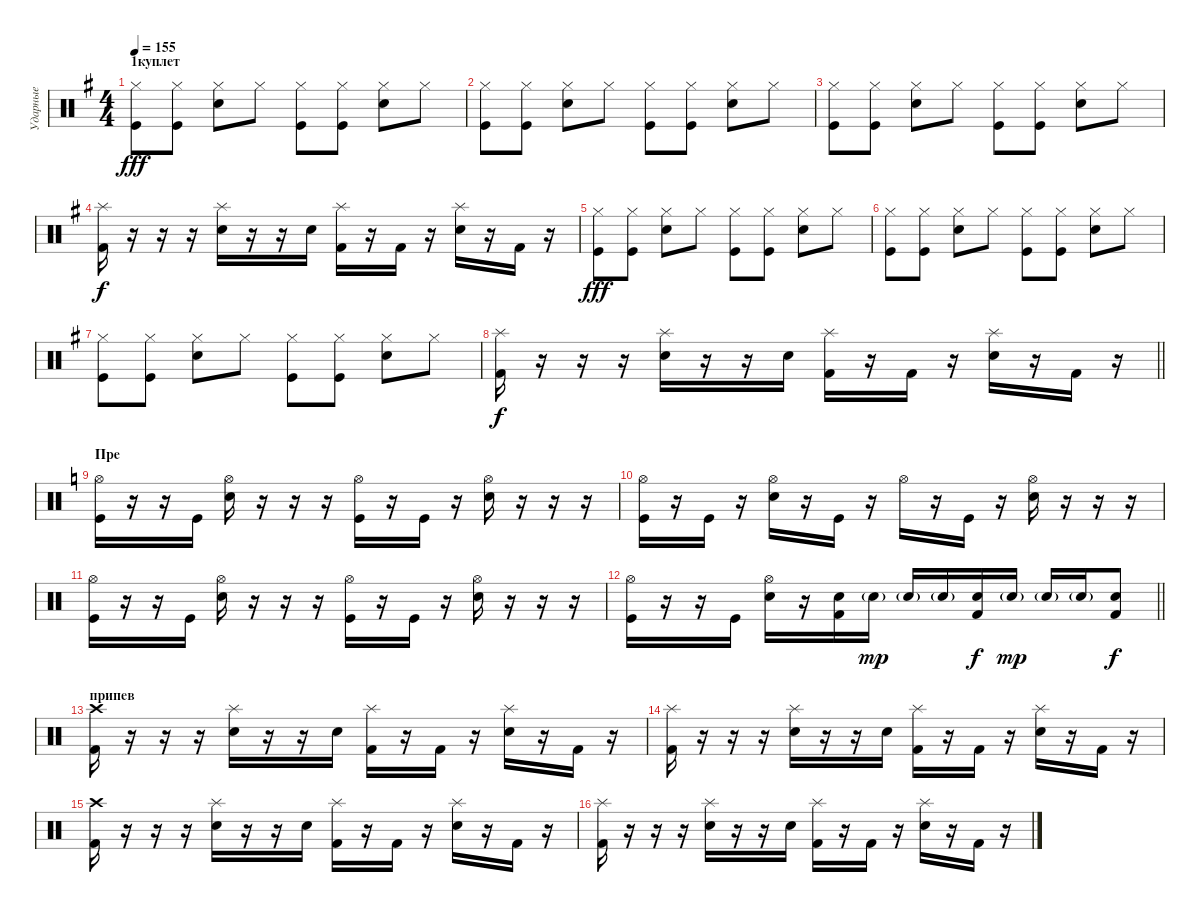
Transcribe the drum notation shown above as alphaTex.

\track ("Ударные" "Ударные") {instrument percussion}
\staff {score}
\articulation defaults
\ts (4 4)
\section ("" "1куплет")
\tempo 155
\clef neutral
\ks g
("Hi-Hat (closed)" "Kick (hit)").8{dy fff} ("Hi-Hat (closed)" "Kick (hit)").8 ("Hi-Hat (closed)" "Snare (hit) 2").8 "Hi-Hat (closed)".8 ("Hi-Hat (closed)" "Kick (hit)").8 ("Hi-Hat (closed)" "Kick (hit)").8 ("Hi-Hat (closed)" "Snare (hit) 2").8 "Hi-Hat (closed)".8 |
("Hi-Hat (closed)" "Kick (hit)").8 ("Hi-Hat (closed)" "Kick (hit)").8 ("Hi-Hat (closed)" "Snare (hit) 2").8 "Hi-Hat (closed)".8 ("Hi-Hat (closed)" "Kick (hit)").8 ("Hi-Hat (closed)" "Kick (hit)").8 ("Hi-Hat (closed)" "Snare (hit) 2").8 "Hi-Hat (closed)".8 |
("Hi-Hat (closed)" "Kick (hit)").8 ("Hi-Hat (closed)" "Kick (hit)").8 ("Hi-Hat (closed)" "Snare (hit) 2").8 "Hi-Hat (closed)".8 ("Hi-Hat (closed)" "Kick (hit)").8 ("Hi-Hat (closed)" "Kick (hit)").8 ("Hi-Hat (closed)" "Snare (hit) 2").8 "Hi-Hat (closed)".8 |
("Splash (hit)" "Kick (hit) 2").16{dy f} r.16 r.16 r.16 ("Splash (hit)" "Electric Snare (hit)").16 r.16 r.16 "Electric Snare (hit)".16 ("Splash (hit)" "Kick (hit) 2").16 r.16 "Kick (hit) 2".16 r.16 ("Splash (hit)" "Electric Snare (hit)").16 r.16 "Kick (hit) 2".16 r.16 |
("Hi-Hat (closed)" "Kick (hit)").8{dy fff} ("Hi-Hat (closed)" "Kick (hit)").8 ("Hi-Hat (closed)" "Snare (hit) 2").8 "Hi-Hat (closed)".8 ("Hi-Hat (closed)" "Kick (hit)").8 ("Hi-Hat (closed)" "Kick (hit)").8 ("Hi-Hat (closed)" "Snare (hit) 2").8 "Hi-Hat (closed)".8 |
("Hi-Hat (closed)" "Kick (hit)").8 ("Hi-Hat (closed)" "Kick (hit)").8 ("Hi-Hat (closed)" "Snare (hit) 2").8 "Hi-Hat (closed)".8 ("Hi-Hat (closed)" "Kick (hit)").8 ("Hi-Hat (closed)" "Kick (hit)").8 ("Hi-Hat (closed)" "Snare (hit) 2").8 "Hi-Hat (closed)".8 |
("Hi-Hat (closed)" "Kick (hit)").8 ("Hi-Hat (closed)" "Kick (hit)").8 ("Hi-Hat (closed)" "Snare (hit) 2").8 "Hi-Hat (closed)".8 ("Hi-Hat (closed)" "Kick (hit)").8 ("Hi-Hat (closed)" "Kick (hit)").8 ("Hi-Hat (closed)" "Snare (hit) 2").8 "Hi-Hat (closed)".8 |
\barLineRight lightlight
("Splash (hit)" "Kick (hit) 2").16{dy f} r.16 r.16 r.16 ("Splash (hit)" "Electric Snare (hit)").16 r.16 r.16 "Electric Snare (hit)".16 ("Splash (hit)" "Kick (hit) 2").16 r.16 "Kick (hit) 2".16 r.16 ("Splash (hit)" "Electric Snare (hit)").16 r.16 "Kick (hit) 2".16 r.16 |
\section ("" "Пре")
\ks c
("Hi-Hat (open)" "Kick (hit)").16 r.16 r.16 "Kick (hit)".16 ("Hi-Hat (open)" "Electric Snare (hit)").16 r.16 r.16 r.16 ("Hi-Hat (open)" "Kick (hit)").16 r.16 "Kick (hit)".16 r.16 ("Hi-Hat (open)" "Electric Snare (hit)").16 r.16 r.16 r.16 |
("Hi-Hat (open)" "Kick (hit)").16 r.16 "Kick (hit)".16 r.16 ("Hi-Hat (open)" "Electric Snare (hit)").16 r.16 "Kick (hit)".16 r.16 "Hi-Hat (open)".16 r.16 "Kick (hit)".16 r.16 ("Hi-Hat (open)" "Electric Snare (hit)").16 r.16 r.16 r.16 |
("Hi-Hat (open)" "Kick (hit)").16 r.16 r.16 "Kick (hit)".16 ("Hi-Hat (open)" "Electric Snare (hit)").16 r.16 r.16 r.16 ("Hi-Hat (open)" "Kick (hit)").16 r.16 "Kick (hit)".16 r.16 ("Hi-Hat (open)" "Electric Snare (hit)").16 r.16 r.16 r.16 |
\barLineRight lightlight
("Hi-Hat (open)" "Kick (hit)").16 r.16 r.16 "Kick (hit)".16 ("Hi-Hat (open)" "Electric Snare (hit)").16 r.16 ("Electric Snare (hit)" "Kick (hit) 2").16 "Electric Snare (hit)"{g}.16{dy mp} "Electric Snare (hit)"{g}.16 "Electric Snare (hit)"{g}.16 ("Electric Snare (hit)" "Kick (hit) 2").16{dy f} "Electric Snare (hit)"{g}.16{dy mp} "Electric Snare (hit)"{g}.16 "Electric Snare (hit)"{g}.16 ("Electric Snare (hit)" "Kick (hit) 2").8{dy f} |
\section ("" "припев")
("Crash high (hit)" "Kick (hit) 2").16 r.16 r.16 r.16 ("Splash (hit)" "Electric Snare (hit)").16 r.16 r.16 "Electric Snare (hit)".16 ("Splash (hit)" "Kick (hit) 2").16 r.16 "Kick (hit) 2".16 r.16 ("Splash (hit)" "Electric Snare (hit)").16 r.16 "Kick (hit) 2".16 r.16 |
("Splash (hit)" "Kick (hit) 2").16 r.16 r.16 r.16 ("Splash (hit)" "Electric Snare (hit)").16 r.16 r.16 "Electric Snare (hit)".16 ("Splash (hit)" "Kick (hit) 2").16 r.16 "Kick (hit) 2".16 r.16 ("Splash (hit)" "Electric Snare (hit)").16 r.16 "Kick (hit) 2".16 r.16 |
("Crash high (hit)" "Kick (hit) 2").16 r.16 r.16 r.16 ("Splash (hit)" "Electric Snare (hit)").16 r.16 r.16 "Electric Snare (hit)".16 ("Splash (hit)" "Kick (hit) 2").16 r.16 "Kick (hit) 2".16 r.16 ("Splash (hit)" "Electric Snare (hit)").16 r.16 "Kick (hit) 2".16 r.16 |
("Splash (hit)" "Kick (hit) 2").16 r.16 r.16 r.16 ("Splash (hit)" "Electric Snare (hit)").16 r.16 r.16 "Electric Snare (hit)".16 ("Splash (hit)" "Kick (hit) 2").16 r.16 "Kick (hit) 2".16 r.16 ("Splash (hit)" "Electric Snare (hit)").16 r.16 "Kick (hit) 2".16 r.16
